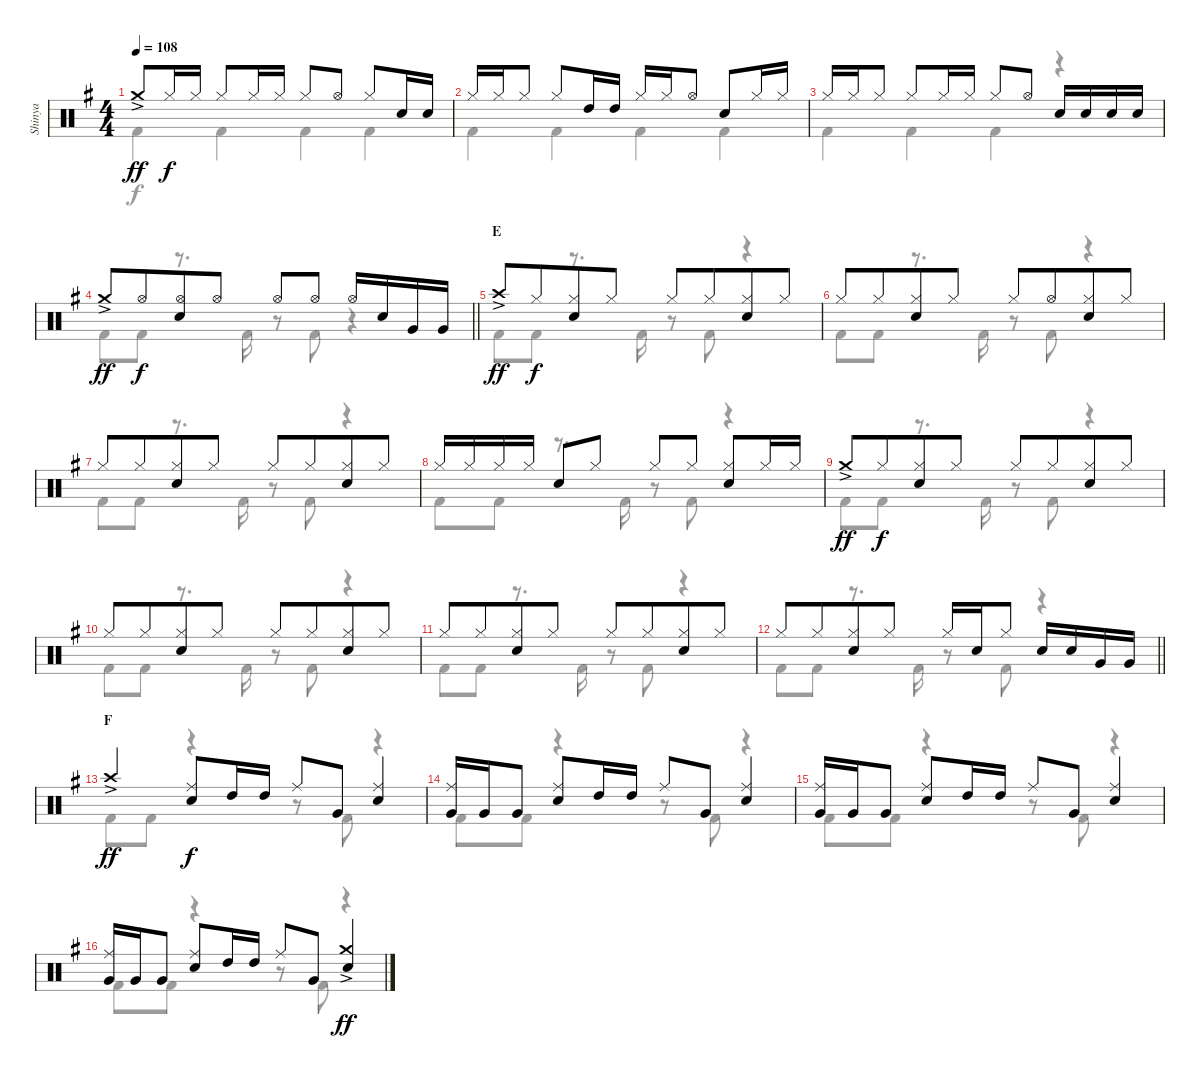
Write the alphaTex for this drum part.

\track ("Shinya" "Shinya") {instrument percussion}
\staff {score}
\articulation defaults
\voice
\ts (4 4)
\tempo 108
\clef neutral
\ks eminor "Crash medium (hit)"{ac}.8{dy ff} "Hi-Hat (closed)".16{dy f} "Hi-Hat (closed)".16 "Hi-Hat (closed)".8 "Hi-Hat (closed)".16 "Hi-Hat (closed)".16 "Hi-Hat (closed)".8 "Hi-Hat (open)".8 "Hi-Hat (closed)".8 "Snare (hit) 2".16 "Snare (hit) 2".16
|
"Hi-Hat (closed)".16 "Hi-Hat (closed)".16 "Hi-Hat (closed)".8 "Hi-Hat (closed)".8 "High Tom (hit)".16 "High Tom (hit)".16 "Hi-Hat (closed)".16 "Hi-Hat (closed)".16 "Hi-Hat (open)".8 "Snare (hit) 2".8 "Hi-Hat (closed)".16 "Hi-Hat (closed)".16 |
"Hi-Hat (closed)".16 "Hi-Hat (closed)".16 "Hi-Hat (closed)".8 "Hi-Hat (closed)".8 "Hi-Hat (closed)".16 "Hi-Hat (closed)".16 "Hi-Hat (closed)".8 "Hi-Hat (open)".8 "Snare (hit) 2".16 "Snare (hit) 2".16 "Snare (hit) 2".16 "Snare (hit) 2".16 |
\barLineRight lightlight "Crash medium (hit)"{ac}.8{dy ff} "Hi-Hat (open)".8{dy f beam merge}
("Hi-Hat (open)" "Snare (hit) 2").8 "Hi-Hat (open)".8 "Hi-Hat (open)".8 "Hi-Hat (open)".8 "Hi-Hat (open)".16 "Snare (hit) 2".16 "Very Low Tom (hit)".16 "Very Low Tom (hit)".16 |
\section ("" "E")
"Crash high (hit)"{ac}.8{dy ff} "Hi-Hat (closed)".8{dy f beam merge} ("Hi-Hat (closed)" "Snare (hit) 2").8 "Hi-Hat (closed)".8 "Hi-Hat (closed)".8 "Hi-Hat (closed)".8{beam merge} ("Hi-Hat (closed)" "Snare (hit) 2").8 "Hi-Hat (closed)".8 |
"Hi-Hat (closed)".8 "Hi-Hat (closed)".8{beam merge} ("Hi-Hat (closed)" "Snare (hit) 2").8 "Hi-Hat (closed)".8 "Hi-Hat (closed)".8 "Hi-Hat (open)".8{beam merge} ("Hi-Hat (closed)" "Snare (hit) 2").8 "Hi-Hat (closed)".8 |
"Hi-Hat (closed)".8 "Hi-Hat (closed)".8{beam merge} ("Hi-Hat (closed)" "Snare (hit) 2").8 "Hi-Hat (closed)".8 "Hi-Hat (closed)".8 "Hi-Hat (closed)".8{beam merge} ("Hi-Hat (closed)" "Snare (hit) 2").8 "Hi-Hat (closed)".8 |
"Hi-Hat (closed)".16 "Hi-Hat (closed)".16 "Hi-Hat (closed)".16 "Hi-Hat (closed)".16 "Snare (hit) 2".8 "Hi-Hat (closed)".8 "Hi-Hat (closed)".8 "Hi-Hat (closed)".8 ("Hi-Hat (closed)" "Snare (hit) 2").8 "Hi-Hat (closed)".16 "Hi-Hat (closed)".16 |
"Crash medium (hit)"{ac}.8{dy ff} "Hi-Hat (closed)".8{dy f beam merge} ("Hi-Hat (closed)" "Snare (hit) 2").8 "Hi-Hat (closed)".8 "Hi-Hat (closed)".8 "Hi-Hat (closed)".8{beam merge} ("Hi-Hat (closed)" "Snare (hit) 2").8 "Hi-Hat (closed)".8 |
"Hi-Hat (closed)".8 "Hi-Hat (closed)".8{beam merge} ("Hi-Hat (closed)" "Snare (hit) 2").8 "Hi-Hat (closed)".8 "Hi-Hat (closed)".8 "Hi-Hat (closed)".8{beam merge} ("Hi-Hat (closed)" "Snare (hit) 2").8 "Hi-Hat (closed)".8 |
"Hi-Hat (closed)".8 "Hi-Hat (closed)".8{beam merge} ("Hi-Hat (closed)" "Snare (hit) 2").8 "Hi-Hat (closed)".8 "Hi-Hat (closed)".8 "Hi-Hat (closed)".8{beam merge} ("Hi-Hat (closed)" "Snare (hit) 2").8 "Hi-Hat (closed)".8 |
\barLineRight lightlight "Hi-Hat (closed)".8 "Hi-Hat (closed)".8{beam merge}
("Hi-Hat (closed)" "Snare (hit) 2").8 "Hi-Hat (closed)".8 "Hi-Hat (closed)".16 "Snare (hit) 2".16 "Hi-Hat (closed)".8 "Snare (hit) 2".16 "Snare (hit) 2".16 "Very Low Tom (hit)".16 "Very Low Tom (hit)".16 |
\section ("" "F")
"Crash high (hit)"{ac}.4{dy ff} ("Ride (middle)" "Snare (hit) 2").8{dy f} "High Tom (hit)".16 "High Tom (hit)".16 "Ride (middle)".8 "Very Low Tom (hit)".8 ("Ride (middle)" "Snare (hit) 2").4 |
("Ride (middle)" "Very Low Tom (hit)").16 "Very Low Tom (hit)".16 "Very Low Tom (hit)".8 ("Ride (middle)" "Snare (hit) 2").8 "High Tom (hit)".16 "High Tom (hit)".16 "Ride (middle)".8 "Very Low Tom (hit)".8 ("Ride (middle)" "Snare (hit) 2").4 |
("Ride (middle)" "Very Low Tom (hit)").16 "Very Low Tom (hit)".16 "Very Low Tom (hit)".8 ("Ride (middle)" "Snare (hit) 2").8 "High Tom (hit)".16 "High Tom (hit)".16 "Ride (middle)".8 "Very Low Tom (hit)".8 ("Ride (middle)" "Snare (hit) 2").4 |
("Ride (middle)" "Very Low Tom (hit)").16 "Very Low Tom (hit)".16 "Very Low Tom (hit)".8 ("Ride (middle)" "Snare (hit) 2").8 "High Tom (hit)".16 "High Tom (hit)".16 "Ride (middle)".8 "Very Low Tom (hit)".8 ("Crash medium (hit)"{ac} "Snare (hit) 2").4{dy ff}
\voice
\clef neutral
\ottava regular
\simile none
\ks eminor "Kick (hit) 2".4{dy f} "Kick (hit) 2".4 "Kick (hit) 2".4 "Kick (hit) 2".4
|
"Kick (hit) 2".4 "Kick (hit) 2".4 "Kick (hit) 2".4 "Kick (hit) 2".4 |
"Kick (hit) 2".4 "Kick (hit) 2".4 "Kick (hit) 2".4 r.4 |
\barLineRight lightlight "Kick (hit) 2".8 "Kick (hit) 2".8
r.8{d} "Kick (hit) 2".16 r.8 "Kick (hit) 2".8 r.4 |
"Kick (hit) 2".8 "Kick (hit) 2".8 r.8{d} "Kick (hit) 2".16 r.8 "Kick (hit) 2".8 r.4 |
"Kick (hit) 2".8 "Kick (hit) 2".8 r.8{d} "Kick (hit) 2".16 r.8 "Kick (hit) 2".8 r.4 |
"Kick (hit) 2".8 "Kick (hit) 2".8 r.8{d} "Kick (hit) 2".16 r.8 "Kick (hit) 2".8 r.4 |
"Kick (hit) 2".8 "Kick (hit) 2".8 r.8{d} "Kick (hit) 2".16 r.8 "Kick (hit) 2".8 r.4 |
"Kick (hit) 2".8 "Kick (hit) 2".8 r.8{d} "Kick (hit) 2".16 r.8 "Kick (hit) 2".8 r.4 |
"Kick (hit) 2".8 "Kick (hit) 2".8 r.8{d} "Kick (hit) 2".16 r.8 "Kick (hit) 2".8 r.4 |
"Kick (hit) 2".8 "Kick (hit) 2".8 r.8{d} "Kick (hit) 2".16 r.8 "Kick (hit) 2".8 r.4 |
\barLineRight lightlight "Kick (hit) 2".8 "Kick (hit) 2".8
r.8{d} "Kick (hit) 2".16 r.8 "Kick (hit) 2".8 r.4 |
"Kick (hit) 2".8 "Kick (hit) 2".8 r.4 r.8 "Kick (hit) 2".8 r.4 |
"Kick (hit) 2".8 "Kick (hit) 2".8 r.4 r.8 "Kick (hit) 2".8 r.4 |
"Kick (hit) 2".8 "Kick (hit) 2".8 r.4 r.8 "Kick (hit) 2".8 r.4 |
"Kick (hit) 2".8 "Kick (hit) 2".8 r.4 r.8 "Kick (hit) 2".8 r.4
